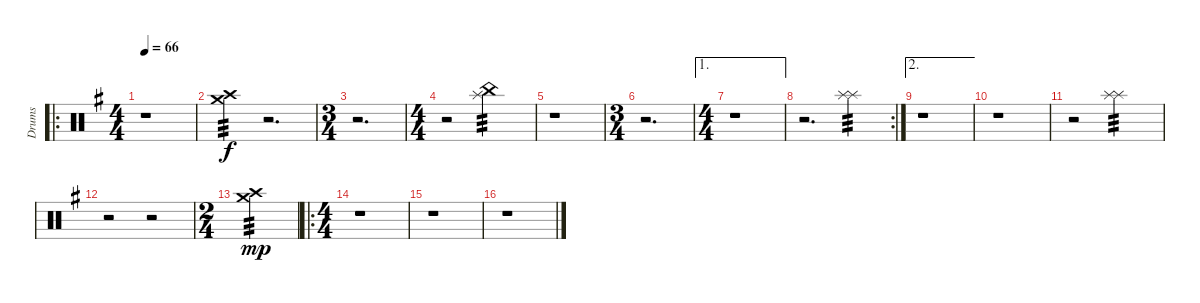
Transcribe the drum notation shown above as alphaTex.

\track ("Drums" "Drums") {instrument percussion}
\staff {score}
\articulation defaults
\ro
\ts (4 4)
\tempo 66
\clef neutral
\ks g
r.1{dy f volume 0} |
("Crash high (hit)" "Crash medium (hit)").4{tp 3 volume 13} r.2{d} |
\ts (3 4)
r.2{d volume 0} |
\ts (4 4)
r.2 ("Splash (hit)" "China (hit)").2{tp 3 volume 13} |
r.1 |
\ts (3 4)
r.2{d} |
\ae 1
\ts (4 4)
r.1{volume 0} |
\rc 2
r.2{d} ("Splash (hit)" "Splash (hit)").4{tp 3 volume 13} |
\ae 2
r.1 |
r.1 |
r.2{volume 0} ("Splash (hit)" "Splash (hit)").2{tp 3 volume 13} |
r.2 r.2{volume 0} |
\ts (2 4)
("Crash medium (hit)" "Crash high (hit)").2{tp 3 dy mp volume 13} |
\ro
\ts (4 4)
r.1 |
r.1 |
r.1
